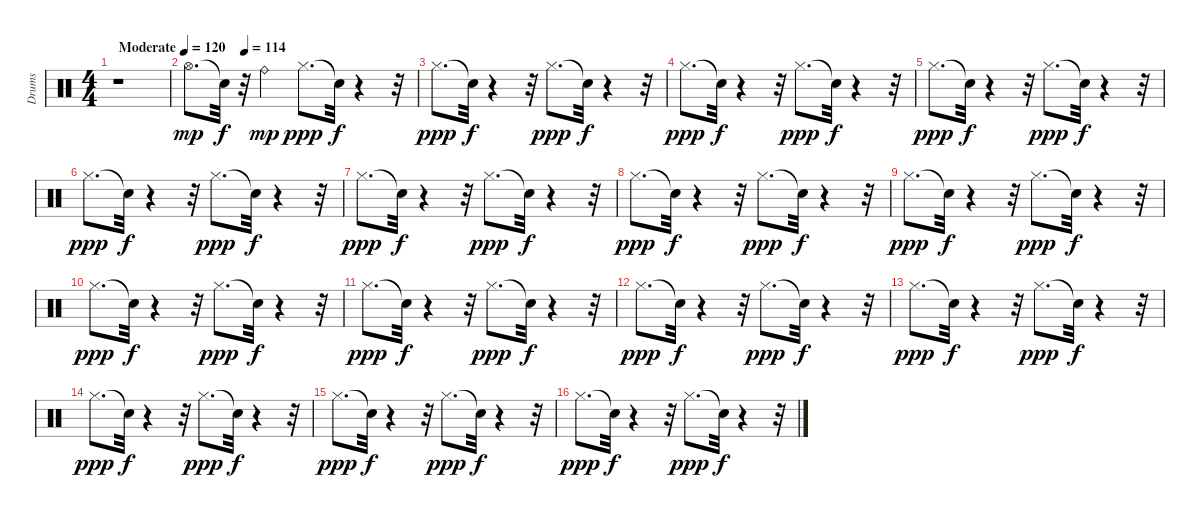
\track ("Drums" "Drums") {instrument percussion}
\staff {score}
\articulation defaults
\ts (4 4)
\tempo (120 "Moderate")
\clef neutral
\ks c
r.1{dy mp} |
\tempo (114 0.25)
"Hi-Hat (open)".8{d} "Snare (hit)"{t}.32{dy f} r.32 "Ride (bell)".4{dy mp} "Hi-Hat (closed)".8{d dy ppp} "Snare (hit)"{t}.32{dy f} r.4 r.32 |
"Hi-Hat (closed)".8{d dy ppp} "Snare (hit)"{t}.32{dy f} r.4 r.32 "Hi-Hat (closed)".8{d dy ppp} "Snare (hit)"{t}.32{dy f} r.4 r.32 |
"Hi-Hat (closed)".8{d dy ppp} "Snare (hit)"{t}.32{dy f} r.4 r.32 "Hi-Hat (closed)".8{d dy ppp} "Snare (hit)"{t}.32{dy f} r.4 r.32 |
"Hi-Hat (closed)".8{d dy ppp} "Snare (hit)"{t}.32{dy f} r.4 r.32 "Hi-Hat (closed)".8{d dy ppp} "Snare (hit)"{t}.32{dy f} r.4 r.32 |
"Hi-Hat (closed)".8{d dy ppp} "Snare (hit)"{t}.32{dy f} r.4 r.32 "Hi-Hat (closed)".8{d dy ppp} "Snare (hit)"{t}.32{dy f} r.4 r.32 |
"Hi-Hat (closed)".8{d dy ppp} "Snare (hit)"{t}.32{dy f} r.4 r.32 "Hi-Hat (closed)".8{d dy ppp} "Snare (hit)"{t}.32{dy f} r.4 r.32 |
"Hi-Hat (closed)".8{d dy ppp} "Snare (hit)"{t}.32{dy f} r.4 r.32 "Hi-Hat (closed)".8{d dy ppp} "Snare (hit)"{t}.32{dy f} r.4 r.32 |
"Hi-Hat (closed)".8{d dy ppp} "Snare (hit)"{t}.32{dy f} r.4 r.32 "Hi-Hat (closed)".8{d dy ppp} "Snare (hit)"{t}.32{dy f} r.4 r.32 |
"Hi-Hat (closed)".8{d dy ppp} "Snare (hit)"{t}.32{dy f} r.4 r.32 "Hi-Hat (closed)".8{d dy ppp} "Snare (hit)"{t}.32{dy f} r.4 r.32 |
"Hi-Hat (closed)".8{d dy ppp} "Snare (hit)"{t}.32{dy f} r.4 r.32 "Hi-Hat (closed)".8{d dy ppp} "Snare (hit)"{t}.32{dy f} r.4 r.32 |
"Hi-Hat (closed)".8{d dy ppp} "Snare (hit)"{t}.32{dy f} r.4 r.32 "Hi-Hat (closed)".8{d dy ppp} "Snare (hit)"{t}.32{dy f} r.4 r.32 |
"Hi-Hat (closed)".8{d dy ppp} "Snare (hit)"{t}.32{dy f} r.4 r.32 "Hi-Hat (closed)".8{d dy ppp} "Snare (hit)"{t}.32{dy f} r.4 r.32 |
"Hi-Hat (closed)".8{d dy ppp} "Snare (hit)"{t}.32{dy f} r.4 r.32 "Hi-Hat (closed)".8{d dy ppp} "Snare (hit)"{t}.32{dy f} r.4 r.32 |
"Hi-Hat (closed)".8{d dy ppp} "Snare (hit)"{t}.32{dy f} r.4 r.32 "Hi-Hat (closed)".8{d dy ppp} "Snare (hit)"{t}.32{dy f} r.4 r.32 |
"Hi-Hat (closed)".8{d dy ppp} "Snare (hit)"{t}.32{dy f} r.4 r.32 "Hi-Hat (closed)".8{d dy ppp} "Snare (hit)"{t}.32{dy f} r.4 r.32
